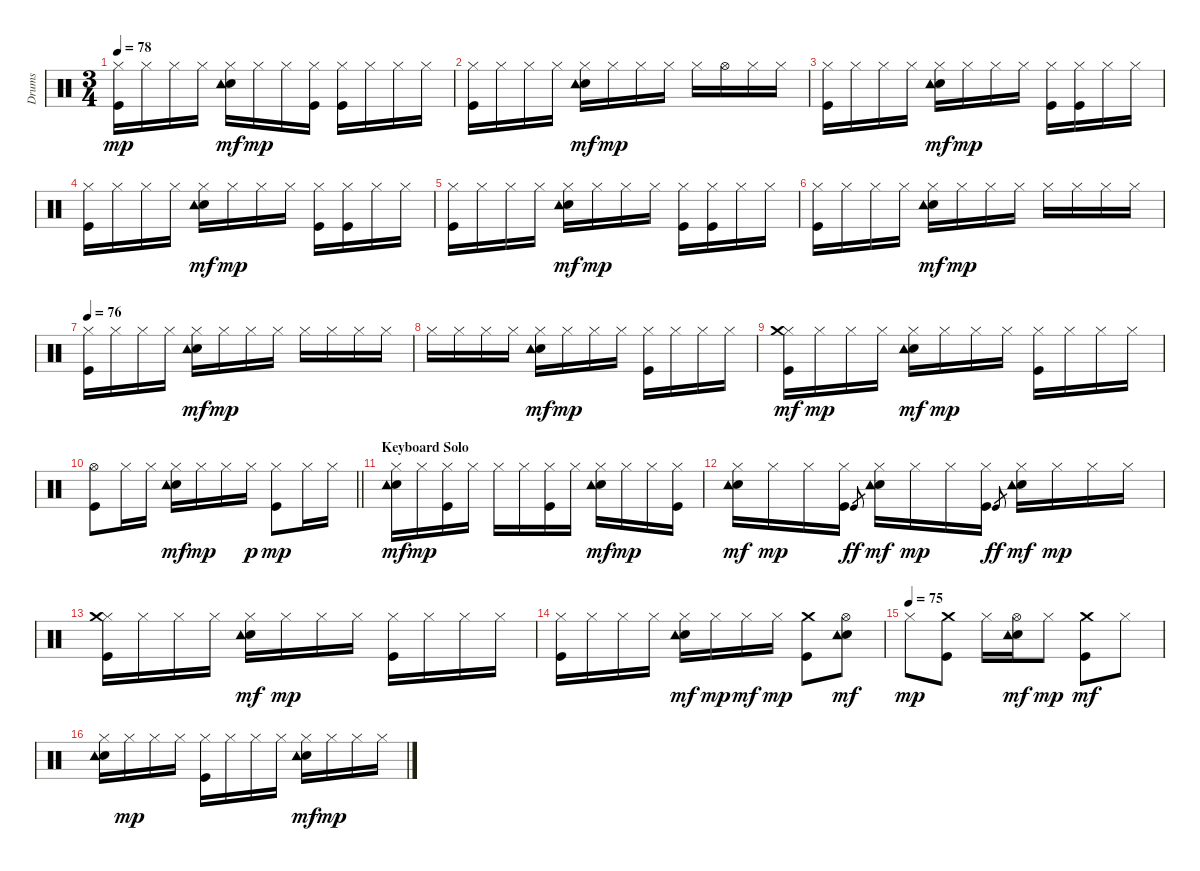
\track ("Drums" "Drums") {instrument percussion}
\staff {score}
\articulation defaults
\ts (3 4)
\tempo 78
\clef neutral
\ks c
("Kick (hit)" "Hi-Hat (closed)").16{dy mp} "Hi-Hat (closed)".16 "Hi-Hat (closed)".16 "Hi-Hat (closed)".16 ("Electric Snare (hit)" "Hi-Hat (closed)" "Tambourine (hit)").16{dy mf} "Hi-Hat (closed)".16{dy mp} "Hi-Hat (closed)".16 ("Kick (hit)" "Hi-Hat (closed)").16 ("Kick (hit)" "Hi-Hat (closed)").16 "Hi-Hat (closed)".16 "Hi-Hat (closed)".16 "Hi-Hat (closed)".16 |
("Kick (hit)" "Hi-Hat (closed)").16 "Hi-Hat (closed)".16 "Hi-Hat (closed)".16 "Hi-Hat (closed)".16 ("Electric Snare (hit)" "Hi-Hat (closed)" "Tambourine (hit)").16{dy mf} "Hi-Hat (closed)".16{dy mp} "Hi-Hat (closed)".16 "Hi-Hat (closed)".16 "Hi-Hat (closed)".16 "Hi-Hat (open)".16 "Hi-Hat (closed)".16 "Hi-Hat (closed)".16 |
("Kick (hit)" "Hi-Hat (closed)").16 "Hi-Hat (closed)".16 "Hi-Hat (closed)".16 "Hi-Hat (closed)".16 ("Electric Snare (hit)" "Hi-Hat (closed)" "Tambourine (hit)").16{dy mf} "Hi-Hat (closed)".16{dy mp} "Hi-Hat (closed)".16 "Hi-Hat (closed)".16 ("Kick (hit)" "Hi-Hat (closed)").16 ("Kick (hit)" "Hi-Hat (closed)").16 "Hi-Hat (closed)".16 "Hi-Hat (closed)".16 |
("Kick (hit)" "Hi-Hat (closed)").16 "Hi-Hat (closed)".16 "Hi-Hat (closed)".16 "Hi-Hat (closed)".16 ("Electric Snare (hit)" "Hi-Hat (closed)" "Tambourine (hit)").16{dy mf} "Hi-Hat (closed)".16{dy mp} "Hi-Hat (closed)".16 "Hi-Hat (closed)".16 ("Kick (hit)" "Hi-Hat (closed)").16 ("Kick (hit)" "Hi-Hat (closed)").16 "Hi-Hat (closed)".16 "Hi-Hat (closed)".16 |
("Kick (hit)" "Hi-Hat (closed)").16 "Hi-Hat (closed)".16 "Hi-Hat (closed)".16 "Hi-Hat (closed)".16 ("Electric Snare (hit)" "Hi-Hat (closed)" "Tambourine (hit)").16{dy mf} "Hi-Hat (closed)".16{dy mp} "Hi-Hat (closed)".16 "Hi-Hat (closed)".16 ("Kick (hit)" "Hi-Hat (closed)").16 ("Kick (hit)" "Hi-Hat (closed)").16 "Hi-Hat (closed)".16 "Hi-Hat (closed)".16 |
("Kick (hit)" "Hi-Hat (closed)").16 "Hi-Hat (closed)".16 "Hi-Hat (closed)".16 "Hi-Hat (closed)".16 ("Electric Snare (hit)" "Hi-Hat (closed)" "Tambourine (hit)").16{dy mf} "Hi-Hat (closed)".16{dy mp} "Hi-Hat (closed)".16 "Hi-Hat (closed)".16 "Hi-Hat (closed)".16 "Hi-Hat (closed)".16 "Hi-Hat (closed)".16 "Hi-Hat (closed)".16 |
\tempo 76
("Kick (hit)" "Hi-Hat (closed)").16 "Hi-Hat (closed)".16 "Hi-Hat (closed)".16 "Hi-Hat (closed)".16 ("Electric Snare (hit)" "Hi-Hat (closed)" "Tambourine (hit)").16{dy mf} "Hi-Hat (closed)".16{dy mp} "Hi-Hat (closed)".16 "Hi-Hat (closed)".16 "Hi-Hat (closed)".16 "Hi-Hat (closed)".16 "Hi-Hat (closed)".16 "Hi-Hat (closed)".16 |
"Hi-Hat (closed)".16 "Hi-Hat (closed)".16 "Hi-Hat (closed)".16 "Hi-Hat (closed)".16 ("Electric Snare (hit)" "Hi-Hat (closed)" "Tambourine (hit)").16{dy mf} "Hi-Hat (closed)".16{dy mp} "Hi-Hat (closed)".16 "Hi-Hat (closed)".16 ("Kick (hit)" "Hi-Hat (closed)").16 "Hi-Hat (closed)".16 "Hi-Hat (closed)".16 "Hi-Hat (closed)".16 |
("Kick (hit)" "Hi-Hat (closed)" "Crash medium (hit)").16{dy mf} "Hi-Hat (closed)".16{dy mp} "Hi-Hat (closed)".16 "Hi-Hat (closed)".16 ("Electric Snare (hit)" "Hi-Hat (closed)" "Tambourine (hit)").16{dy mf} "Hi-Hat (closed)".16{dy mp} "Hi-Hat (closed)".16 "Hi-Hat (closed)".16 ("Kick (hit)" "Hi-Hat (closed)").16 "Hi-Hat (closed)".16 "Hi-Hat (closed)".16 "Hi-Hat (closed)".16 |
\barLineRight lightlight
("Kick (hit)" "Hi-Hat (open)").8 "Hi-Hat (closed)".16 "Hi-Hat (closed)".16 ("Electric Snare (hit)" "Hi-Hat (closed)" "Tambourine (hit)").16{dy mf} "Hi-Hat (closed)".16{dy mp} "Hi-Hat (closed)".16 "Hi-Hat (closed)".16{dy p} ("Kick (hit)" "Hi-Hat (closed)").8{dy mp} "Hi-Hat (closed)".16 "Hi-Hat (closed)".16 |
\section ("" "Keyboard Solo")
("Electric Snare (hit)" "Hi-Hat (closed)" "Tambourine (hit)").16{dy mf} "Hi-Hat (closed)".16{dy mp} ("Kick (hit)" "Hi-Hat (closed)").16 "Hi-Hat (closed)".16 "Hi-Hat (closed)".16 "Hi-Hat (closed)".16 ("Kick (hit)" "Hi-Hat (closed)").16 "Hi-Hat (closed)".16 ("Electric Snare (hit)" "Hi-Hat (closed)" "Tambourine (hit)").16{dy mf} "Hi-Hat (closed)".16{dy mp} "Hi-Hat (closed)".16 ("Kick (hit)" "Hi-Hat (closed)").16 |
("Electric Snare (hit)" "Hi-Hat (closed)" "Tambourine (hit)").16{dy mf} "Hi-Hat (closed)".16{dy mp} "Hi-Hat (closed)".16 ("Kick (hit)" "Hi-Hat (closed)").16 "Kick (hit)".8{gr dy ff} ("Electric Snare (hit)" "Hi-Hat (closed)" "Tambourine (hit)").16{dy mf} "Hi-Hat (closed)".16{dy mp} "Hi-Hat (closed)".16 ("Kick (hit)" "Hi-Hat (closed)").16 "Kick (hit)".8{gr dy ff} ("Electric Snare (hit)" "Hi-Hat (closed)" "Tambourine (hit)").16{dy mf} "Hi-Hat (closed)".16{dy mp} "Hi-Hat (closed)".16 "Hi-Hat (closed)".16 |
("Kick (hit)" "Hi-Hat (closed)" "Crash medium (hit)").16 "Hi-Hat (closed)".16 "Hi-Hat (closed)".16 "Hi-Hat (closed)".16 ("Electric Snare (hit)" "Hi-Hat (closed)" "Tambourine (hit)").16{dy mf} "Hi-Hat (closed)".16{dy mp} "Hi-Hat (closed)".16 "Hi-Hat (closed)".16 ("Kick (hit)" "Hi-Hat (closed)").16 "Hi-Hat (closed)".16 "Hi-Hat (closed)".16 "Hi-Hat (closed)".16 |
("Kick (hit)" "Hi-Hat (closed)").16 "Hi-Hat (closed)".16 "Hi-Hat (closed)".16 "Hi-Hat (closed)".16 ("Electric Snare (hit)" "Hi-Hat (closed)" "Tambourine (hit)").16{dy mf} "Hi-Hat (closed)".16{dy mp} "Hi-Hat (closed)".16{dy mf} "Hi-Hat (closed)".16{dy mp} ("Kick (hit)" "Crash medium (hit)").8 ("Electric Snare (hit)" "Hi-Hat (open)" "Tambourine (hit)").8{dy mf} |
\tempo (75)
"Hi-Hat (closed)".8{dy mp} ("Kick (hit)" "Crash medium (hit)").8 "Hi-Hat (closed)".16 ("Electric Snare (hit)" "Hi-Hat (open)" "Tambourine (hit)").16{dy mf} "Hi-Hat (closed)".8{dy mp} ("Kick (hit)" "Crash medium (hit)").8{dy mf} "Hi-Hat (closed)".8 |
("Electric Snare (hit)" "Hi-Hat (closed)" "Tambourine (hit)").16 "Hi-Hat (closed)".16{dy mp} "Hi-Hat (closed)".16 "Hi-Hat (closed)".16 ("Kick (hit)" "Hi-Hat (closed)").16 "Hi-Hat (closed)".16 "Hi-Hat (closed)".16 "Hi-Hat (closed)".16 ("Electric Snare (hit)" "Hi-Hat (closed)" "Tambourine (hit)").16{dy mf} "Hi-Hat (closed)".16{dy mp} "Hi-Hat (closed)".16 "Hi-Hat (closed)".16
